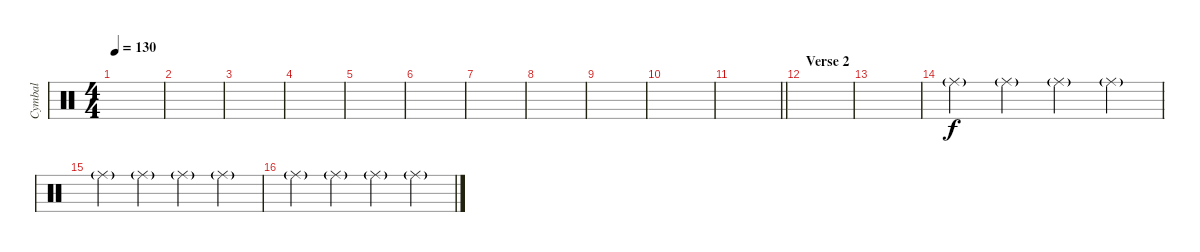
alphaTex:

\track ("Cymbal" "Cymbal") {instrument percussion}
\staff {score}
\articulation defaults
\ts (4 4)
\tempo 130
\clef neutral
\ks c
|
|
|
|
|
|
|
|
|
|
\barLineRight lightlight
|
\section ("" "Verse 2")
|
|
"Ride (middle)"{g}.4 "Ride (middle)"{g}.4 "Ride (middle)"{g}.4 "Ride (middle)"{g}.4 |
"Ride (middle)"{g}.4 "Ride (middle)"{g}.4 "Ride (middle)"{g}.4 "Ride (middle)"{g}.4 |
"Ride (middle)"{g}.4 "Ride (middle)"{g}.4 "Ride (middle)"{g}.4 "Ride (middle)"{g}.4
